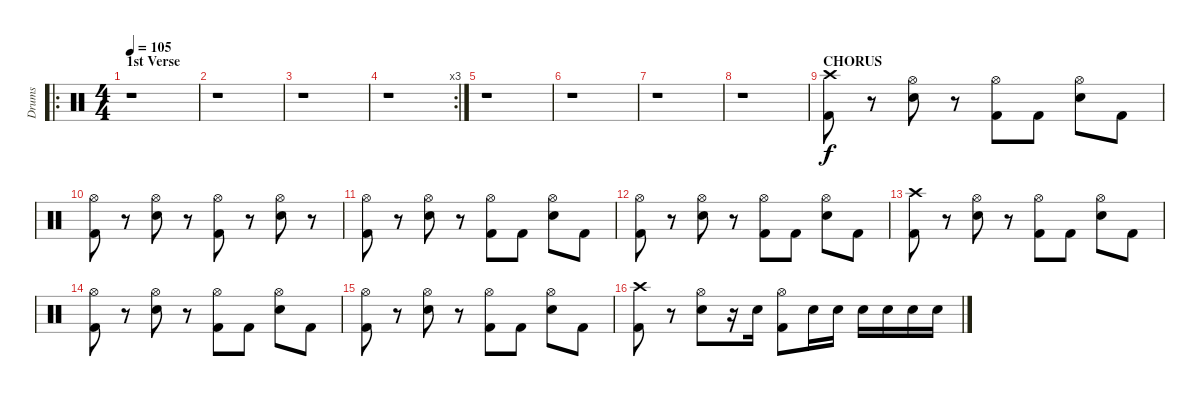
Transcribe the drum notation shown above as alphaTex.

\track ("Drums" "Drums") {instrument percussion}
\staff {score}
\articulation defaults
\ro
\ts (4 4)
\section ("" "1st Verse")
\tempo 105
\clef neutral
\ks c
r.1{dy f} |
r.1 |
r.1 |
\rc 3
r.1 |
r.1 |
r.1 |
r.1 |
r.1 |
\section ("" "CHORUS")
("Crash high (hit)" "Kick (hit) 2").8 r.8 ("Hi-Hat (open)" "Electric Snare (hit)").8 r.8 ("Hi-Hat (open)" "Kick (hit) 2").8 "Kick (hit) 2".8 ("Hi-Hat (open)" "Electric Snare (hit)").8 "Kick (hit) 2".8 |
("Hi-Hat (open)" "Kick (hit) 2").8 r.8 ("Hi-Hat (open)" "Electric Snare (hit)").8 r.8 ("Hi-Hat (open)" "Kick (hit) 2").8 r.8 ("Hi-Hat (open)" "Electric Snare (hit)").8 r.8 |
("Hi-Hat (open)" "Kick (hit) 2").8 r.8 ("Hi-Hat (open)" "Electric Snare (hit)").8 r.8 ("Hi-Hat (open)" "Kick (hit) 2").8 "Kick (hit) 2".8 ("Hi-Hat (open)" "Electric Snare (hit)").8 "Kick (hit) 2".8 |
("Hi-Hat (open)" "Kick (hit) 2").8 r.8 ("Hi-Hat (open)" "Electric Snare (hit)").8 r.8 ("Hi-Hat (open)" "Kick (hit) 2").8 "Kick (hit) 2".8 ("Hi-Hat (open)" "Electric Snare (hit)").8 "Kick (hit) 2".8 |
("Crash high (hit)" "Kick (hit) 2").8 r.8 ("Hi-Hat (open)" "Electric Snare (hit)").8 r.8 ("Hi-Hat (open)" "Kick (hit) 2").8 "Kick (hit) 2".8 ("Hi-Hat (open)" "Electric Snare (hit)").8 "Kick (hit) 2".8 |
("Hi-Hat (open)" "Kick (hit) 2").8 r.8 ("Hi-Hat (open)" "Electric Snare (hit)").8 r.8 ("Hi-Hat (open)" "Kick (hit) 2").8 "Kick (hit) 2".8 ("Hi-Hat (open)" "Electric Snare (hit)").8 "Kick (hit) 2".8 |
("Hi-Hat (open)" "Kick (hit) 2").8 r.8 ("Hi-Hat (open)" "Electric Snare (hit)").8 r.8 ("Hi-Hat (open)" "Kick (hit) 2").8 "Kick (hit) 2".8 ("Hi-Hat (open)" "Electric Snare (hit)").8 "Kick (hit) 2".8 |
("Crash high (hit)" "Kick (hit) 2").8 r.8 ("Hi-Hat (open)" "Electric Snare (hit)").8 r.16 "Electric Snare (hit)".16 ("Hi-Hat (open)" "Kick (hit) 2").8 "Electric Snare (hit)".16 "Electric Snare (hit)".16 "Electric Snare (hit)".16 "Electric Snare (hit)".16 "Electric Snare (hit)".16 "Electric Snare (hit)".16
